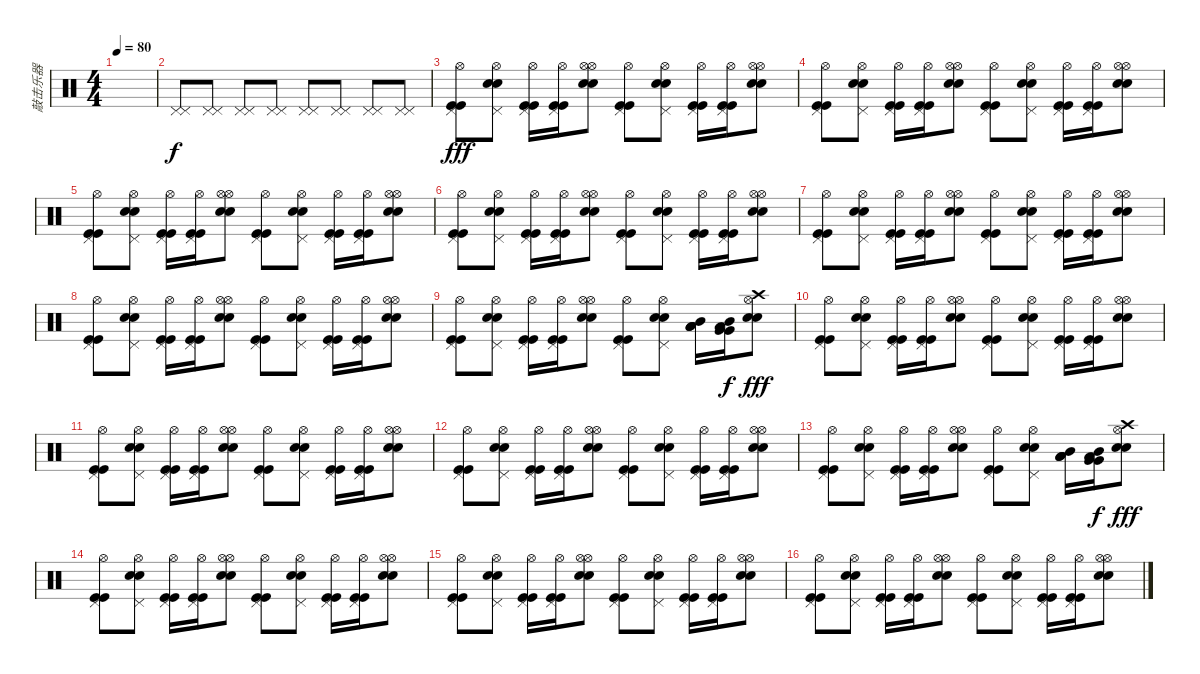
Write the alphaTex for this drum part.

\track ("敲击乐器" "敲击乐器") {instrument percussion}
\staff {score}
\articulation defaults
\ts (4 4)
\tempo 80
\clef neutral
\ks c
|
("Pedal Hi-Hat (hit)" "Pedal Hi-Hat (hit)").8 ("Pedal Hi-Hat (hit)" "Pedal Hi-Hat (hit)").8 ("Pedal Hi-Hat (hit)" "Pedal Hi-Hat (hit)").8 ("Pedal Hi-Hat (hit)" "Pedal Hi-Hat (hit)").8 ("Pedal Hi-Hat (hit)" "Pedal Hi-Hat (hit)").8 ("Pedal Hi-Hat (hit)" "Pedal Hi-Hat (hit)").8 ("Pedal Hi-Hat (hit)" "Pedal Hi-Hat (hit)").8 ("Pedal Hi-Hat (hit)" "Pedal Hi-Hat (hit)").8 |
("Kick (hit)" "Kick (hit)" "Pedal Hi-Hat (hit)" "Hi-Hat (open)").8{dy fff} ("Electric Snare (hit)" "Electric Snare (hit)" "Pedal Hi-Hat (hit)" "Hi-Hat (open)").8 ("Kick (hit)" "Kick (hit)" "Pedal Hi-Hat (hit)" "Hi-Hat (open)").16 ("Kick (hit)" "Kick (hit)" "Pedal Hi-Hat (hit)" "Hi-Hat (open)").16 ("Electric Snare (hit)" "Electric Snare (hit)" "Hi-Hat (open)" "Hi-Hat (open)").8 ("Kick (hit)" "Kick (hit)" "Pedal Hi-Hat (hit)" "Hi-Hat (open)").8 ("Electric Snare (hit)" "Electric Snare (hit)" "Pedal Hi-Hat (hit)" "Hi-Hat (open)").8 ("Kick (hit)" "Kick (hit)" "Pedal Hi-Hat (hit)" "Hi-Hat (open)").16 ("Kick (hit)" "Kick (hit)" "Pedal Hi-Hat (hit)" "Hi-Hat (open)").16 ("Electric Snare (hit)" "Electric Snare (hit)" "Hi-Hat (open)" "Hi-Hat (open)").8 |
("Kick (hit)" "Kick (hit)" "Pedal Hi-Hat (hit)" "Hi-Hat (open)").8 ("Electric Snare (hit)" "Electric Snare (hit)" "Pedal Hi-Hat (hit)" "Hi-Hat (open)").8 ("Kick (hit)" "Kick (hit)" "Pedal Hi-Hat (hit)" "Hi-Hat (open)").16 ("Kick (hit)" "Kick (hit)" "Pedal Hi-Hat (hit)" "Hi-Hat (open)").16 ("Electric Snare (hit)" "Electric Snare (hit)" "Hi-Hat (open)" "Hi-Hat (open)").8 ("Kick (hit)" "Kick (hit)" "Pedal Hi-Hat (hit)" "Hi-Hat (open)").8 ("Electric Snare (hit)" "Electric Snare (hit)" "Pedal Hi-Hat (hit)" "Hi-Hat (open)").8 ("Kick (hit)" "Kick (hit)" "Pedal Hi-Hat (hit)" "Hi-Hat (open)").16 ("Kick (hit)" "Kick (hit)" "Pedal Hi-Hat (hit)" "Hi-Hat (open)").16 ("Electric Snare (hit)" "Electric Snare (hit)" "Hi-Hat (open)" "Hi-Hat (open)").8 |
("Kick (hit)" "Kick (hit)" "Pedal Hi-Hat (hit)" "Hi-Hat (open)").8 ("Electric Snare (hit)" "Electric Snare (hit)" "Pedal Hi-Hat (hit)" "Hi-Hat (open)").8 ("Kick (hit)" "Kick (hit)" "Pedal Hi-Hat (hit)" "Hi-Hat (open)").16 ("Kick (hit)" "Kick (hit)" "Pedal Hi-Hat (hit)" "Hi-Hat (open)").16 ("Electric Snare (hit)" "Electric Snare (hit)" "Hi-Hat (open)" "Hi-Hat (open)").8 ("Kick (hit)" "Kick (hit)" "Pedal Hi-Hat (hit)" "Hi-Hat (open)").8 ("Electric Snare (hit)" "Electric Snare (hit)" "Pedal Hi-Hat (hit)" "Hi-Hat (open)").8 ("Kick (hit)" "Kick (hit)" "Pedal Hi-Hat (hit)" "Hi-Hat (open)").16 ("Kick (hit)" "Kick (hit)" "Pedal Hi-Hat (hit)" "Hi-Hat (open)").16 ("Electric Snare (hit)" "Electric Snare (hit)" "Hi-Hat (open)" "Hi-Hat (open)").8 |
("Kick (hit)" "Kick (hit)" "Pedal Hi-Hat (hit)" "Hi-Hat (open)").8 ("Electric Snare (hit)" "Electric Snare (hit)" "Pedal Hi-Hat (hit)" "Hi-Hat (open)").8 ("Kick (hit)" "Kick (hit)" "Pedal Hi-Hat (hit)" "Hi-Hat (open)").16 ("Kick (hit)" "Kick (hit)" "Pedal Hi-Hat (hit)" "Hi-Hat (open)").16 ("Electric Snare (hit)" "Electric Snare (hit)" "Hi-Hat (open)" "Hi-Hat (open)").8 ("Kick (hit)" "Kick (hit)" "Pedal Hi-Hat (hit)" "Hi-Hat (open)").8 ("Electric Snare (hit)" "Electric Snare (hit)" "Pedal Hi-Hat (hit)" "Hi-Hat (open)").8 ("Kick (hit)" "Kick (hit)" "Pedal Hi-Hat (hit)" "Hi-Hat (open)").16 ("Kick (hit)" "Kick (hit)" "Pedal Hi-Hat (hit)" "Hi-Hat (open)").16 ("Electric Snare (hit)" "Electric Snare (hit)" "Hi-Hat (open)" "Hi-Hat (open)").8 |
("Kick (hit)" "Kick (hit)" "Pedal Hi-Hat (hit)" "Hi-Hat (open)").8 ("Electric Snare (hit)" "Electric Snare (hit)" "Pedal Hi-Hat (hit)" "Hi-Hat (open)").8 ("Kick (hit)" "Kick (hit)" "Pedal Hi-Hat (hit)" "Hi-Hat (open)").16 ("Kick (hit)" "Kick (hit)" "Pedal Hi-Hat (hit)" "Hi-Hat (open)").16 ("Electric Snare (hit)" "Electric Snare (hit)" "Hi-Hat (open)" "Hi-Hat (open)").8 ("Kick (hit)" "Kick (hit)" "Pedal Hi-Hat (hit)" "Hi-Hat (open)").8 ("Electric Snare (hit)" "Electric Snare (hit)" "Pedal Hi-Hat (hit)" "Hi-Hat (open)").8 ("Kick (hit)" "Kick (hit)" "Pedal Hi-Hat (hit)" "Hi-Hat (open)").16 ("Kick (hit)" "Kick (hit)" "Pedal Hi-Hat (hit)" "Hi-Hat (open)").16 ("Electric Snare (hit)" "Electric Snare (hit)" "Hi-Hat (open)" "Hi-Hat (open)").8 |
("Kick (hit)" "Kick (hit)" "Pedal Hi-Hat (hit)" "Hi-Hat (open)").8 ("Electric Snare (hit)" "Electric Snare (hit)" "Pedal Hi-Hat (hit)" "Hi-Hat (open)").8 ("Kick (hit)" "Kick (hit)" "Pedal Hi-Hat (hit)" "Hi-Hat (open)").16 ("Kick (hit)" "Kick (hit)" "Pedal Hi-Hat (hit)" "Hi-Hat (open)").16 ("Electric Snare (hit)" "Electric Snare (hit)" "Hi-Hat (open)" "Hi-Hat (open)").8 ("Kick (hit)" "Kick (hit)" "Pedal Hi-Hat (hit)" "Hi-Hat (open)").8 ("Electric Snare (hit)" "Electric Snare (hit)" "Pedal Hi-Hat (hit)" "Hi-Hat (open)").8 ("Kick (hit)" "Kick (hit)" "Pedal Hi-Hat (hit)" "Hi-Hat (open)").16 ("Kick (hit)" "Kick (hit)" "Pedal Hi-Hat (hit)" "Hi-Hat (open)").16 ("Electric Snare (hit)" "Electric Snare (hit)" "Hi-Hat (open)" "Hi-Hat (open)").8 |
("Kick (hit)" "Kick (hit)" "Pedal Hi-Hat (hit)" "Hi-Hat (open)").8 ("Electric Snare (hit)" "Electric Snare (hit)" "Pedal Hi-Hat (hit)" "Hi-Hat (open)").8 ("Kick (hit)" "Kick (hit)" "Pedal Hi-Hat (hit)" "Hi-Hat (open)").16 ("Kick (hit)" "Kick (hit)" "Pedal Hi-Hat (hit)" "Hi-Hat (open)").16 ("Electric Snare (hit)" "Electric Snare (hit)" "Hi-Hat (open)" "Hi-Hat (open)").8 ("Kick (hit)" "Kick (hit)" "Pedal Hi-Hat (hit)" "Hi-Hat (open)").8 ("Electric Snare (hit)" "Electric Snare (hit)" "Pedal Hi-Hat (hit)" "Hi-Hat (open)").8 ("Low Floor Tom (hit)" "Low Floor Tom (hit)" "Mid Tom (hit)" "Low Floor Tom (hit)").16 ("Very Low Tom (hit)" "Very Low Tom (hit)" "Mid Tom (hit)" "Low Floor Tom (hit)").16{dy f} ("Electric Snare (hit)" "Electric Snare (hit)" "Hi-Hat (open)" "Crash high (hit)").8{dy fff} |
("Kick (hit)" "Kick (hit)" "Pedal Hi-Hat (hit)" "Hi-Hat (open)").8 ("Electric Snare (hit)" "Electric Snare (hit)" "Pedal Hi-Hat (hit)" "Hi-Hat (open)").8 ("Kick (hit)" "Kick (hit)" "Pedal Hi-Hat (hit)" "Hi-Hat (open)").16 ("Kick (hit)" "Kick (hit)" "Pedal Hi-Hat (hit)" "Hi-Hat (open)").16 ("Electric Snare (hit)" "Electric Snare (hit)" "Hi-Hat (open)" "Hi-Hat (open)").8 ("Kick (hit)" "Kick (hit)" "Pedal Hi-Hat (hit)" "Hi-Hat (open)").8 ("Electric Snare (hit)" "Electric Snare (hit)" "Pedal Hi-Hat (hit)" "Hi-Hat (open)").8 ("Kick (hit)" "Kick (hit)" "Pedal Hi-Hat (hit)" "Hi-Hat (open)").16 ("Kick (hit)" "Kick (hit)" "Pedal Hi-Hat (hit)" "Hi-Hat (open)").16 ("Electric Snare (hit)" "Electric Snare (hit)" "Hi-Hat (open)" "Hi-Hat (open)").8 |
("Kick (hit)" "Kick (hit)" "Pedal Hi-Hat (hit)" "Hi-Hat (open)").8 ("Electric Snare (hit)" "Electric Snare (hit)" "Pedal Hi-Hat (hit)" "Hi-Hat (open)").8 ("Kick (hit)" "Kick (hit)" "Pedal Hi-Hat (hit)" "Hi-Hat (open)").16 ("Kick (hit)" "Kick (hit)" "Pedal Hi-Hat (hit)" "Hi-Hat (open)").16 ("Electric Snare (hit)" "Electric Snare (hit)" "Hi-Hat (open)" "Hi-Hat (open)").8 ("Kick (hit)" "Kick (hit)" "Pedal Hi-Hat (hit)" "Hi-Hat (open)").8 ("Electric Snare (hit)" "Electric Snare (hit)" "Pedal Hi-Hat (hit)" "Hi-Hat (open)").8 ("Kick (hit)" "Kick (hit)" "Pedal Hi-Hat (hit)" "Hi-Hat (open)").16 ("Kick (hit)" "Kick (hit)" "Pedal Hi-Hat (hit)" "Hi-Hat (open)").16 ("Electric Snare (hit)" "Electric Snare (hit)" "Hi-Hat (open)" "Hi-Hat (open)").8 |
("Kick (hit)" "Kick (hit)" "Pedal Hi-Hat (hit)" "Hi-Hat (open)").8 ("Electric Snare (hit)" "Electric Snare (hit)" "Pedal Hi-Hat (hit)" "Hi-Hat (open)").8 ("Kick (hit)" "Kick (hit)" "Pedal Hi-Hat (hit)" "Hi-Hat (open)").16 ("Kick (hit)" "Kick (hit)" "Pedal Hi-Hat (hit)" "Hi-Hat (open)").16 ("Electric Snare (hit)" "Electric Snare (hit)" "Hi-Hat (open)" "Hi-Hat (open)").8 ("Kick (hit)" "Kick (hit)" "Pedal Hi-Hat (hit)" "Hi-Hat (open)").8 ("Electric Snare (hit)" "Electric Snare (hit)" "Pedal Hi-Hat (hit)" "Hi-Hat (open)").8 ("Kick (hit)" "Kick (hit)" "Pedal Hi-Hat (hit)" "Hi-Hat (open)").16 ("Kick (hit)" "Kick (hit)" "Pedal Hi-Hat (hit)" "Hi-Hat (open)").16 ("Electric Snare (hit)" "Electric Snare (hit)" "Hi-Hat (open)" "Hi-Hat (open)").8 |
("Kick (hit)" "Kick (hit)" "Pedal Hi-Hat (hit)" "Hi-Hat (open)").8 ("Electric Snare (hit)" "Electric Snare (hit)" "Pedal Hi-Hat (hit)" "Hi-Hat (open)").8 ("Kick (hit)" "Kick (hit)" "Pedal Hi-Hat (hit)" "Hi-Hat (open)").16 ("Kick (hit)" "Kick (hit)" "Pedal Hi-Hat (hit)" "Hi-Hat (open)").16 ("Electric Snare (hit)" "Electric Snare (hit)" "Hi-Hat (open)" "Hi-Hat (open)").8 ("Kick (hit)" "Kick (hit)" "Pedal Hi-Hat (hit)" "Hi-Hat (open)").8 ("Electric Snare (hit)" "Electric Snare (hit)" "Pedal Hi-Hat (hit)" "Hi-Hat (open)").8 ("Low Floor Tom (hit)" "Low Floor Tom (hit)" "Mid Tom (hit)" "Low Floor Tom (hit)").16 ("Very Low Tom (hit)" "Very Low Tom (hit)" "Mid Tom (hit)" "Low Floor Tom (hit)").16{dy f} ("Electric Snare (hit)" "Electric Snare (hit)" "Hi-Hat (open)" "Crash high (hit)").8{dy fff} |
("Kick (hit)" "Kick (hit)" "Pedal Hi-Hat (hit)" "Hi-Hat (open)").8 ("Electric Snare (hit)" "Electric Snare (hit)" "Pedal Hi-Hat (hit)" "Hi-Hat (open)").8 ("Kick (hit)" "Kick (hit)" "Pedal Hi-Hat (hit)" "Hi-Hat (open)").16 ("Kick (hit)" "Kick (hit)" "Pedal Hi-Hat (hit)" "Hi-Hat (open)").16 ("Electric Snare (hit)" "Electric Snare (hit)" "Hi-Hat (open)" "Hi-Hat (open)").8 ("Kick (hit)" "Kick (hit)" "Pedal Hi-Hat (hit)" "Hi-Hat (open)").8 ("Electric Snare (hit)" "Electric Snare (hit)" "Pedal Hi-Hat (hit)" "Hi-Hat (open)").8 ("Kick (hit)" "Kick (hit)" "Pedal Hi-Hat (hit)" "Hi-Hat (open)").16 ("Kick (hit)" "Kick (hit)" "Pedal Hi-Hat (hit)" "Hi-Hat (open)").16 ("Electric Snare (hit)" "Electric Snare (hit)" "Hi-Hat (open)" "Hi-Hat (open)").8 |
("Kick (hit)" "Kick (hit)" "Pedal Hi-Hat (hit)" "Hi-Hat (open)").8 ("Electric Snare (hit)" "Electric Snare (hit)" "Pedal Hi-Hat (hit)" "Hi-Hat (open)").8 ("Kick (hit)" "Kick (hit)" "Pedal Hi-Hat (hit)" "Hi-Hat (open)").16 ("Kick (hit)" "Kick (hit)" "Pedal Hi-Hat (hit)" "Hi-Hat (open)").16 ("Electric Snare (hit)" "Electric Snare (hit)" "Hi-Hat (open)" "Hi-Hat (open)").8 ("Kick (hit)" "Kick (hit)" "Pedal Hi-Hat (hit)" "Hi-Hat (open)").8 ("Electric Snare (hit)" "Electric Snare (hit)" "Pedal Hi-Hat (hit)" "Hi-Hat (open)").8 ("Kick (hit)" "Kick (hit)" "Pedal Hi-Hat (hit)" "Hi-Hat (open)").16 ("Kick (hit)" "Kick (hit)" "Pedal Hi-Hat (hit)" "Hi-Hat (open)").16 ("Electric Snare (hit)" "Electric Snare (hit)" "Hi-Hat (open)" "Hi-Hat (open)").8 |
("Kick (hit)" "Kick (hit)" "Pedal Hi-Hat (hit)" "Hi-Hat (open)").8 ("Electric Snare (hit)" "Electric Snare (hit)" "Pedal Hi-Hat (hit)" "Hi-Hat (open)").8 ("Kick (hit)" "Kick (hit)" "Pedal Hi-Hat (hit)" "Hi-Hat (open)").16 ("Kick (hit)" "Kick (hit)" "Pedal Hi-Hat (hit)" "Hi-Hat (open)").16 ("Electric Snare (hit)" "Electric Snare (hit)" "Hi-Hat (open)" "Hi-Hat (open)").8 ("Kick (hit)" "Kick (hit)" "Pedal Hi-Hat (hit)" "Hi-Hat (open)").8 ("Electric Snare (hit)" "Electric Snare (hit)" "Pedal Hi-Hat (hit)" "Hi-Hat (open)").8 ("Kick (hit)" "Kick (hit)" "Pedal Hi-Hat (hit)" "Hi-Hat (open)").16 ("Kick (hit)" "Kick (hit)" "Pedal Hi-Hat (hit)" "Hi-Hat (open)").16 ("Electric Snare (hit)" "Electric Snare (hit)" "Hi-Hat (open)" "Hi-Hat (open)").8
